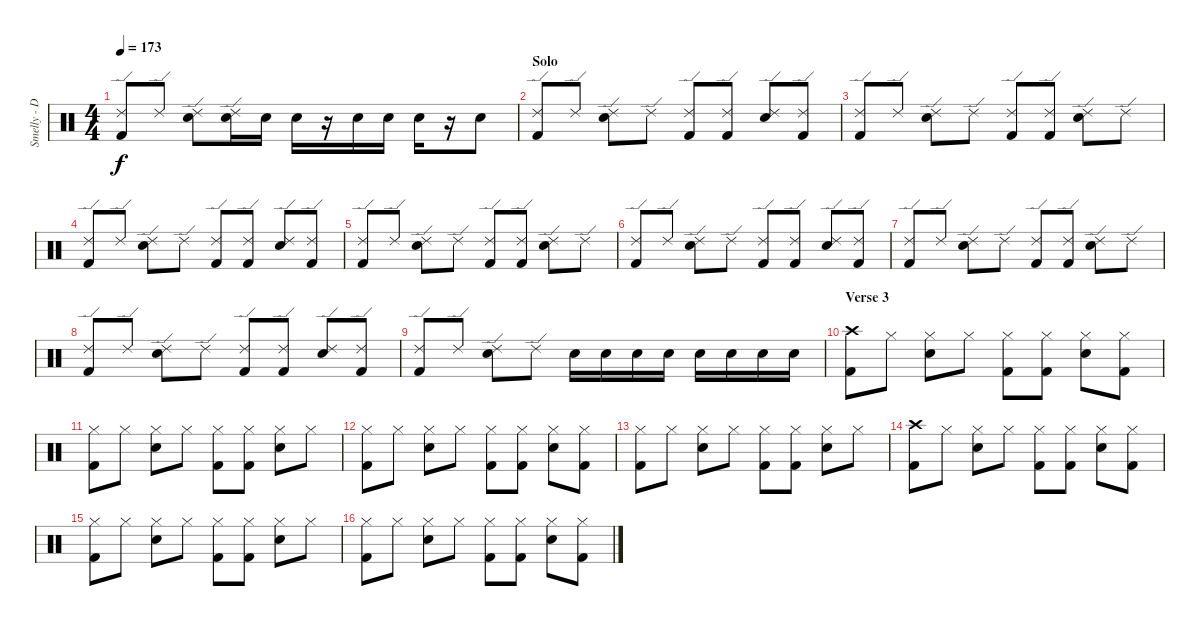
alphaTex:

\track ("Smelly - Drums" "Smelly - D") {instrument percussion}
\staff {score}
\articulation defaults
\ts (4 4)
\tempo 173
\clef neutral
\ks c
("Ride (edge) 2" "Kick (hit) 2").8{dy f} "Ride (edge) 2".8 ("Ride (edge) 2" "Snare (hit) 2").8 ("Ride (edge) 2" "Snare (hit) 2").16 "Snare (hit) 2".16 "Snare (hit) 2".16 r.16 "Snare (hit) 2".16 "Snare (hit) 2".16 "Snare (hit) 2".16 r.16 "Snare (hit) 2".8 |
\section ("" "Solo")
("Ride (edge) 2" "Kick (hit) 2").8 "Ride (edge) 2".8 ("Ride (edge) 2" "Snare (hit) 2").8 "Ride (edge) 2".8 ("Ride (edge) 2" "Kick (hit) 2").8 ("Ride (edge) 2" "Kick (hit) 2").8 ("Ride (edge) 2" "Snare (hit) 2").8 ("Ride (edge) 2" "Kick (hit) 2").8 |
("Ride (edge) 2" "Kick (hit) 2").8 "Ride (edge) 2".8 ("Ride (edge) 2" "Snare (hit) 2").8 "Ride (edge) 2".8 ("Ride (edge) 2" "Kick (hit) 2").8 ("Ride (edge) 2" "Kick (hit) 2").8 ("Ride (edge) 2" "Snare (hit) 2").8 "Ride (edge) 2".8 |
("Ride (edge) 2" "Kick (hit) 2").8 "Ride (edge) 2".8 ("Ride (edge) 2" "Snare (hit) 2").8 "Ride (edge) 2".8 ("Ride (edge) 2" "Kick (hit) 2").8 ("Ride (edge) 2" "Kick (hit) 2").8 ("Ride (edge) 2" "Snare (hit) 2").8 ("Ride (edge) 2" "Kick (hit) 2").8 |
("Ride (edge) 2" "Kick (hit) 2").8 "Ride (edge) 2".8 ("Ride (edge) 2" "Snare (hit) 2").8 "Ride (edge) 2".8 ("Ride (edge) 2" "Kick (hit) 2").8 ("Ride (edge) 2" "Kick (hit) 2").8 ("Ride (edge) 2" "Snare (hit) 2").8 "Ride (edge) 2".8 |
("Ride (edge) 2" "Kick (hit) 2").8 "Ride (edge) 2".8 ("Ride (edge) 2" "Snare (hit) 2").8 "Ride (edge) 2".8 ("Ride (edge) 2" "Kick (hit) 2").8 ("Ride (edge) 2" "Kick (hit) 2").8 ("Ride (edge) 2" "Snare (hit) 2").8 ("Ride (edge) 2" "Kick (hit) 2").8 |
("Ride (edge) 2" "Kick (hit) 2").8 "Ride (edge) 2".8 ("Ride (edge) 2" "Snare (hit) 2").8 "Ride (edge) 2".8 ("Ride (edge) 2" "Kick (hit) 2").8 ("Ride (edge) 2" "Kick (hit) 2").8 ("Ride (edge) 2" "Snare (hit) 2").8 "Ride (edge) 2".8 |
("Ride (edge) 2" "Kick (hit) 2").8 "Ride (edge) 2".8 ("Ride (edge) 2" "Snare (hit) 2").8 "Ride (edge) 2".8 ("Ride (edge) 2" "Kick (hit) 2").8 ("Ride (edge) 2" "Kick (hit) 2").8 ("Ride (edge) 2" "Snare (hit) 2").8 ("Ride (edge) 2" "Kick (hit) 2").8 |
("Ride (edge) 2" "Kick (hit) 2").8 "Ride (edge) 2".8 ("Ride (edge) 2" "Snare (hit) 2").8 "Ride (edge) 2".8 "Snare (hit) 2".16 "Snare (hit) 2".16 "Snare (hit) 2".16 "Snare (hit) 2".16 "Snare (hit) 2".16 "Snare (hit) 2".16 "Snare (hit) 2".16 "Snare (hit) 2".16 |
\section ("" "Verse 3")
("Crash high (hit)" "Kick (hit) 2").8 "Hi-Hat (closed)".8 ("Hi-Hat (closed)" "Snare (hit) 2").8 "Hi-Hat (closed)".8 ("Hi-Hat (closed)" "Kick (hit) 2").8 ("Hi-Hat (closed)" "Kick (hit) 2").8 ("Hi-Hat (closed)" "Snare (hit) 2").8 ("Hi-Hat (closed)" "Kick (hit) 2").8 |
("Hi-Hat (closed)" "Kick (hit) 2").8 "Hi-Hat (closed)".8 ("Hi-Hat (closed)" "Snare (hit) 2").8 "Hi-Hat (closed)".8 ("Hi-Hat (closed)" "Kick (hit) 2").8 ("Hi-Hat (closed)" "Kick (hit) 2").8 ("Hi-Hat (closed)" "Snare (hit) 2").8 "Hi-Hat (closed)".8 |
("Hi-Hat (closed)" "Kick (hit) 2").8 "Hi-Hat (closed)".8 ("Hi-Hat (closed)" "Snare (hit) 2").8 "Hi-Hat (closed)".8 ("Hi-Hat (closed)" "Kick (hit) 2").8 ("Hi-Hat (closed)" "Kick (hit) 2").8 ("Hi-Hat (closed)" "Snare (hit) 2").8 ("Hi-Hat (closed)" "Kick (hit) 2").8 |
("Hi-Hat (closed)" "Kick (hit) 2").8 "Hi-Hat (closed)".8 ("Hi-Hat (closed)" "Snare (hit) 2").8 "Hi-Hat (closed)".8 ("Hi-Hat (closed)" "Kick (hit) 2").8 ("Hi-Hat (closed)" "Kick (hit) 2").8 ("Hi-Hat (closed)" "Snare (hit) 2").8 "Hi-Hat (closed)".8 |
("Crash high (hit)" "Kick (hit) 2").8 "Hi-Hat (closed)".8 ("Hi-Hat (closed)" "Snare (hit) 2").8 "Hi-Hat (closed)".8 ("Hi-Hat (closed)" "Kick (hit) 2").8 ("Hi-Hat (closed)" "Kick (hit) 2").8 ("Hi-Hat (closed)" "Snare (hit) 2").8 ("Hi-Hat (closed)" "Kick (hit) 2").8 |
("Hi-Hat (closed)" "Kick (hit) 2").8 "Hi-Hat (closed)".8 ("Hi-Hat (closed)" "Snare (hit) 2").8 "Hi-Hat (closed)".8 ("Hi-Hat (closed)" "Kick (hit) 2").8 ("Hi-Hat (closed)" "Kick (hit) 2").8 ("Hi-Hat (closed)" "Snare (hit) 2").8 "Hi-Hat (closed)".8 |
("Hi-Hat (closed)" "Kick (hit) 2").8 "Hi-Hat (closed)".8 ("Hi-Hat (closed)" "Snare (hit) 2").8 "Hi-Hat (closed)".8 ("Hi-Hat (closed)" "Kick (hit) 2").8 ("Hi-Hat (closed)" "Kick (hit) 2").8 ("Hi-Hat (closed)" "Snare (hit) 2").8 ("Hi-Hat (closed)" "Kick (hit) 2").8
